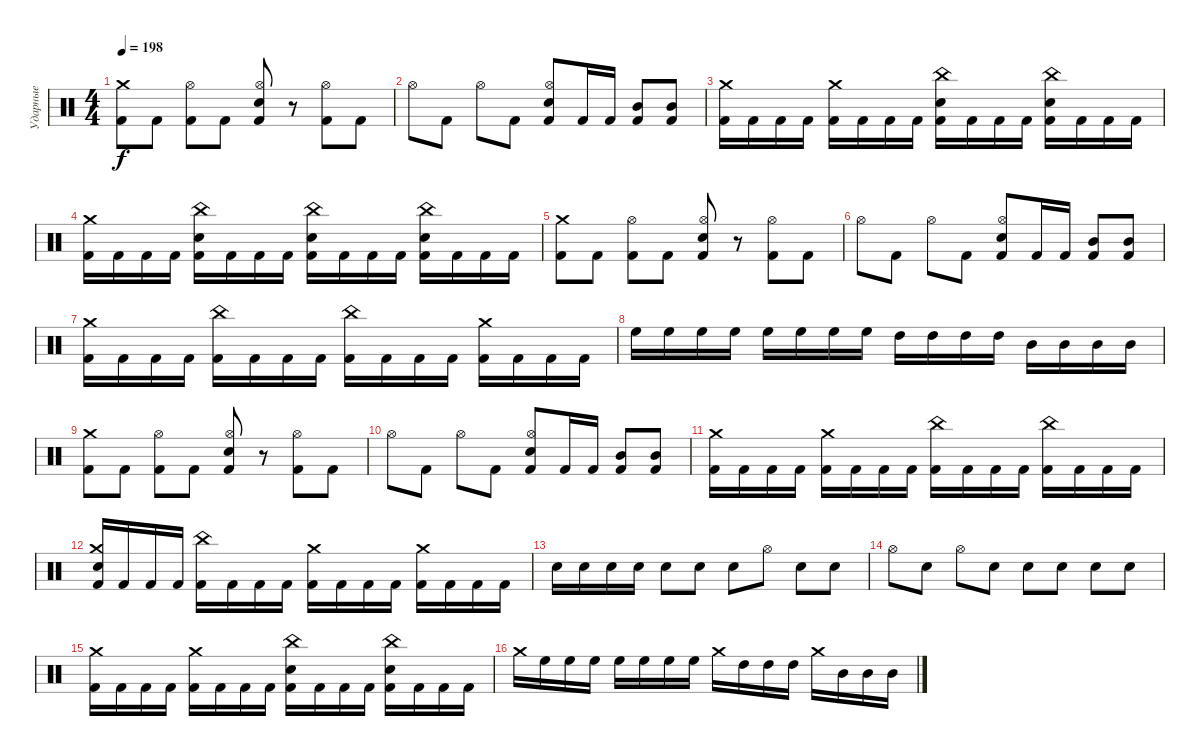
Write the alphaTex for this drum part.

\track ("Ударные" "Ударные") {instrument percussion}
\staff {score}
\articulation defaults
\ts (4 4)
\tempo 198
\clef neutral
\ks c
("Kick (hit) 2" "Crash medium (hit)").8{dy f} "Kick (hit) 2".8 ("Kick (hit) 2" "Hi-Hat (open)").8 "Kick (hit) 2".8 ("Kick (hit) 2" "Hi-Hat (open)" "Electric Snare (hit)").8 r.8 ("Kick (hit) 2" "Hi-Hat (open)").8 "Kick (hit) 2".8 |
"Hi-Hat (open)".8 "Kick (hit) 2".8 "Hi-Hat (open)".8 "Kick (hit) 2".8 ("Kick (hit) 2" "Hi-Hat (open)" "Electric Snare (hit)").8 "Kick (hit) 2".16 "Kick (hit) 2".16 ("Kick (hit) 2" "Mid Tom (hit)").8 ("Kick (hit) 2" "Mid Tom (hit)").8 |
("Kick (hit) 2" "Crash medium (hit)").16 "Kick (hit) 2".16 "Kick (hit) 2".16 "Kick (hit) 2".16 ("Kick (hit) 2" "Crash medium (hit)").16 "Kick (hit) 2".16 "Kick (hit) 2".16 "Kick (hit) 2".16 ("Kick (hit) 2" "China (hit)" "Electric Snare (hit)").16 "Kick (hit) 2".16 "Kick (hit) 2".16 "Kick (hit) 2".16 ("Kick (hit) 2" "China (hit)" "Electric Snare (hit)").16 "Kick (hit) 2".16 "Kick (hit) 2".16 "Kick (hit) 2".16 |
("Kick (hit) 2" "Crash medium (hit)").16 "Kick (hit) 2".16 "Kick (hit) 2".16 "Kick (hit) 2".16 ("Kick (hit) 2" "China (hit)" "Electric Snare (hit)").16 "Kick (hit) 2".16 "Kick (hit) 2".16 "Kick (hit) 2".16 ("Kick (hit) 2" "China (hit)" "Electric Snare (hit)").16 "Kick (hit) 2".16 "Kick (hit) 2".16 "Kick (hit) 2".16 ("Kick (hit) 2" "China (hit)" "Electric Snare (hit)").16 "Kick (hit) 2".16 "Kick (hit) 2".16 "Kick (hit) 2".16 |
("Kick (hit) 2" "Crash medium (hit)").8 "Kick (hit) 2".8 ("Kick (hit) 2" "Hi-Hat (open)").8 "Kick (hit) 2".8 ("Kick (hit) 2" "Hi-Hat (open)" "Electric Snare (hit)").8 r.8 ("Kick (hit) 2" "Hi-Hat (open)").8 "Kick (hit) 2".8 |
"Hi-Hat (open)".8 "Kick (hit) 2".8 "Hi-Hat (open)".8 "Kick (hit) 2".8 ("Kick (hit) 2" "Hi-Hat (open)" "Electric Snare (hit)").8 "Kick (hit) 2".16 "Kick (hit) 2".16 ("Kick (hit) 2" "Mid Tom (hit)").8 ("Kick (hit) 2" "Mid Tom (hit)").8 |
("Kick (hit) 2" "Crash medium (hit)").16 "Kick (hit) 2".16 "Kick (hit) 2".16 "Kick (hit) 2".16 ("Kick (hit) 2" "China (hit)").16 "Kick (hit) 2".16 "Kick (hit) 2".16 "Kick (hit) 2".16 ("Kick (hit) 2" "China (hit)").16 "Kick (hit) 2".16 "Kick (hit) 2".16 "Kick (hit) 2".16 ("Kick (hit) 2" "Crash medium (hit)").16 "Kick (hit) 2".16 "Kick (hit) 2".16 "Kick (hit) 2".16 |
"High Floor Tom (hit)".16 "High Floor Tom (hit)".16 "High Floor Tom (hit)".16 "High Floor Tom (hit)".16 "High Floor Tom (hit)".16 "High Floor Tom (hit)".16 "High Floor Tom (hit)".16 "High Floor Tom (hit)".16 "High Tom (hit)".16 "High Tom (hit)".16 "High Tom (hit)".16 "High Tom (hit)".16 "Mid Tom (hit)".16 "Mid Tom (hit)".16 "Mid Tom (hit)".16 "Mid Tom (hit)".16 |
("Kick (hit) 2" "Crash medium (hit)").8 "Kick (hit) 2".8 ("Kick (hit) 2" "Hi-Hat (open)").8 "Kick (hit) 2".8 ("Kick (hit) 2" "Hi-Hat (open)" "Electric Snare (hit)").8 r.8 ("Kick (hit) 2" "Hi-Hat (open)").8 "Kick (hit) 2".8 |
"Hi-Hat (open)".8 "Kick (hit) 2".8 "Hi-Hat (open)".8 "Kick (hit) 2".8 ("Kick (hit) 2" "Hi-Hat (open)" "Electric Snare (hit)").8 "Kick (hit) 2".16 "Kick (hit) 2".16 ("Kick (hit) 2" "Mid Tom (hit)").8 ("Kick (hit) 2" "Mid Tom (hit)").8 |
("Kick (hit) 2" "Crash medium (hit)").16 "Kick (hit) 2".16 "Kick (hit) 2".16 "Kick (hit) 2".16 ("Kick (hit) 2" "Crash medium (hit)").16 "Kick (hit) 2".16 "Kick (hit) 2".16 "Kick (hit) 2".16 ("Kick (hit) 2" "China (hit)").16 "Kick (hit) 2".16 "Kick (hit) 2".16 "Kick (hit) 2".16 ("Kick (hit) 2" "China (hit)").16 "Kick (hit) 2".16 "Kick (hit) 2".16 "Kick (hit) 2".16 |
("Kick (hit) 2" "Crash medium (hit)" "Electric Snare (hit)").16 "Kick (hit) 2".16 "Kick (hit) 2".16 "Kick (hit) 2".16 ("Kick (hit) 2" "China (hit)").16 "Kick (hit) 2".16 "Kick (hit) 2".16 "Kick (hit) 2".16 ("Kick (hit) 2" "Crash medium (hit)").16 "Kick (hit) 2".16 "Kick (hit) 2".16 "Kick (hit) 2".16 ("Kick (hit) 2" "Crash medium (hit)").16 "Kick (hit) 2".16 "Kick (hit) 2".16 "Kick (hit) 2".16 |
"Electric Snare (hit)".16 "Electric Snare (hit)".16 "Electric Snare (hit)".16 "Electric Snare (hit)".16 "Electric Snare (hit)".8 "Electric Snare (hit)".8 "Electric Snare (hit)".8 "Hi-Hat (open)".8 "Electric Snare (hit)".8 "Electric Snare (hit)".8 |
"Hi-Hat (open)".8 "Electric Snare (hit)".8 "Hi-Hat (open)".8 "Electric Snare (hit)".8 "Electric Snare (hit)".8 "Electric Snare (hit)".8 "Electric Snare (hit)".8 "Electric Snare (hit)".8 |
("Kick (hit) 2" "Crash medium (hit)").16 "Kick (hit) 2".16 "Kick (hit) 2".16 "Kick (hit) 2".16 ("Kick (hit) 2" "Crash medium (hit)").16 "Kick (hit) 2".16 "Kick (hit) 2".16 "Kick (hit) 2".16 ("Kick (hit) 2" "China (hit)" "Electric Snare (hit)").16 "Kick (hit) 2".16 "Kick (hit) 2".16 "Kick (hit) 2".16 ("Kick (hit) 2" "China (hit)" "Electric Snare (hit)").16 "Kick (hit) 2".16 "Kick (hit) 2".16 "Kick (hit) 2".16 |
"Crash medium (hit)".16 "High Floor Tom (hit)".16 "High Floor Tom (hit)".16 "High Floor Tom (hit)".16 "High Floor Tom (hit)".16 "High Floor Tom (hit)".16 "High Floor Tom (hit)".16 "High Floor Tom (hit)".16 "Crash medium (hit)".16 "High Tom (hit)".16 "High Tom (hit)".16 "High Tom (hit)".16 "Crash medium (hit)".16 "Mid Tom (hit)".16 "Mid Tom (hit)".16 "Mid Tom (hit)".16
